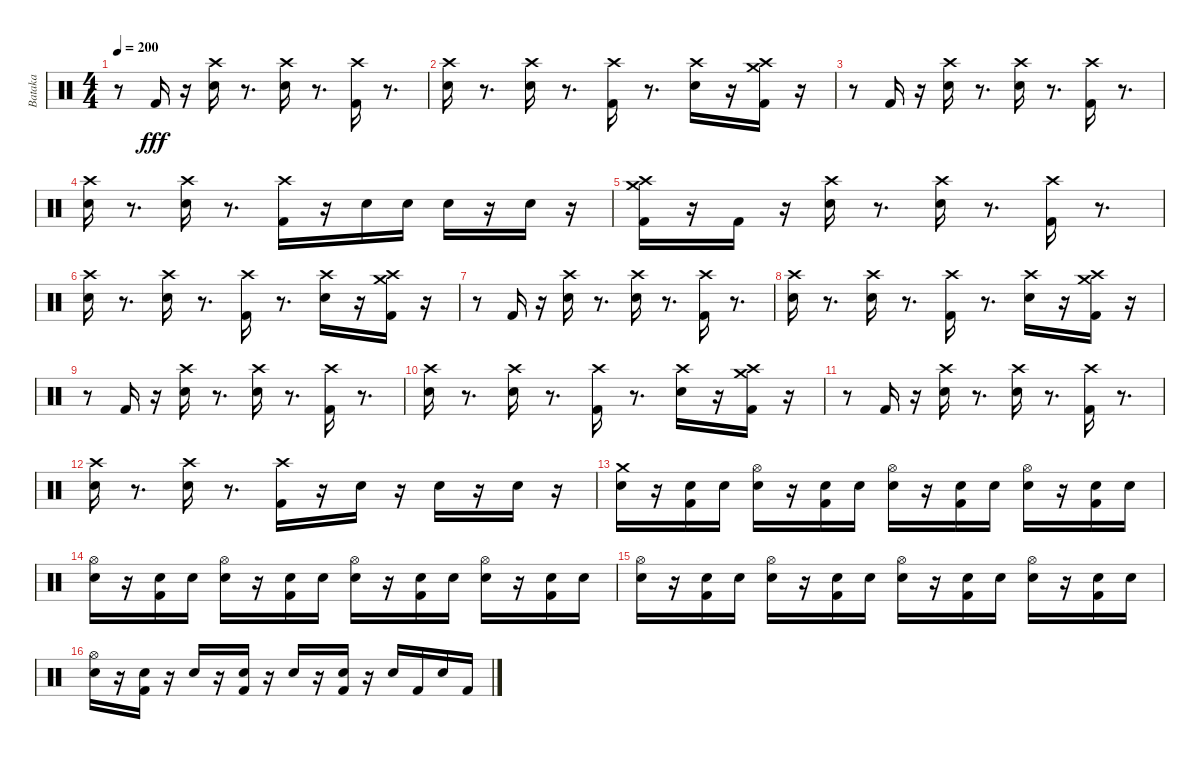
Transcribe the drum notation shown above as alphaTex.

\track ("Bataka" "Bataka") {instrument percussion}
\staff {score}
\articulation defaults
\ts (4 4)
\tempo 200
\clef neutral
\ks c
r.8{dy fff} "Kick (hit) 2".16 r.16 ("Crash high (hit)" "Electric Snare (hit)").16 r.8{d} ("Crash high (hit)" "Electric Snare (hit)").16 r.8{d} ("Crash high (hit)" "Kick (hit) 2").16 r.8{d} |
("Crash high (hit)" "Electric Snare (hit)").16 r.8{d} ("Crash high (hit)" "Electric Snare (hit)").16 r.8{d} ("Crash high (hit)" "Kick (hit) 2").16 r.8{d} ("Crash high (hit)" "Electric Snare (hit)").16 r.16 ("Crash medium (hit)" "Crash high (hit)" "Kick (hit) 2").16 r.16 |
r.8 "Kick (hit) 2".16 r.16 ("Crash high (hit)" "Electric Snare (hit)").16 r.8{d} ("Crash high (hit)" "Electric Snare (hit)").16 r.8{d} ("Crash high (hit)" "Kick (hit) 2").16 r.8{d} |
("Crash high (hit)" "Electric Snare (hit)").16 r.8{d} ("Crash high (hit)" "Electric Snare (hit)").16 r.8{d} ("Crash high (hit)" "Kick (hit) 2").16 r.16 "Electric Snare (hit)".16 "Electric Snare (hit)".16 "Electric Snare (hit)".16 r.16 "Electric Snare (hit)".16 r.16 |
("Crash medium (hit)" "Crash high (hit)" "Kick (hit) 2").16 r.16 "Kick (hit) 2".16 r.16 ("Crash high (hit)" "Electric Snare (hit)").16 r.8{d} ("Crash high (hit)" "Electric Snare (hit)").16 r.8{d} ("Crash high (hit)" "Kick (hit) 2").16 r.8{d} |
("Crash high (hit)" "Electric Snare (hit)").16 r.8{d} ("Crash high (hit)" "Electric Snare (hit)").16 r.8{d} ("Crash high (hit)" "Kick (hit) 2").16 r.8{d} ("Crash high (hit)" "Electric Snare (hit)").16 r.16 ("Crash medium (hit)" "Crash high (hit)" "Kick (hit) 2").16 r.16 |
r.8 "Kick (hit) 2".16 r.16 ("Crash high (hit)" "Electric Snare (hit)").16 r.8{d} ("Crash high (hit)" "Electric Snare (hit)").16 r.8{d} ("Crash high (hit)" "Kick (hit) 2").16 r.8{d} |
("Crash high (hit)" "Electric Snare (hit)").16 r.8{d} ("Crash high (hit)" "Electric Snare (hit)").16 r.8{d} ("Crash high (hit)" "Kick (hit) 2").16 r.8{d} ("Crash high (hit)" "Electric Snare (hit)").16 r.16 ("Crash medium (hit)" "Crash high (hit)" "Kick (hit) 2").16 r.16 |
r.8 "Kick (hit) 2".16 r.16 ("Crash high (hit)" "Electric Snare (hit)").16 r.8{d} ("Crash high (hit)" "Electric Snare (hit)").16 r.8{d} ("Crash high (hit)" "Kick (hit) 2").16 r.8{d} |
("Crash high (hit)" "Electric Snare (hit)").16 r.8{d} ("Crash high (hit)" "Electric Snare (hit)").16 r.8{d} ("Crash high (hit)" "Kick (hit) 2").16 r.8{d} ("Crash high (hit)" "Electric Snare (hit)").16 r.16 ("Crash medium (hit)" "Crash high (hit)" "Kick (hit) 2").16 r.16 |
r.8 "Kick (hit) 2".16 r.16 ("Crash high (hit)" "Electric Snare (hit)").16 r.8{d} ("Crash high (hit)" "Electric Snare (hit)").16 r.8{d} ("Crash high (hit)" "Kick (hit) 2").16 r.8{d} |
("Crash high (hit)" "Electric Snare (hit)").16 r.8{d} ("Crash high (hit)" "Electric Snare (hit)").16 r.8{d} ("Crash high (hit)" "Kick (hit) 2").16 r.16 "Electric Snare (hit)".16 r.16 "Electric Snare (hit)".16 r.16 "Electric Snare (hit)".16 r.16 |
("Electric Snare (hit)" "Crash medium (hit)").16 r.16 ("Electric Snare (hit)" "Kick (hit) 2").16 "Electric Snare (hit)".16 ("Electric Snare (hit)" "Hi-Hat (open)").16 r.16 ("Electric Snare (hit)" "Kick (hit) 2").16 "Electric Snare (hit)".16 ("Electric Snare (hit)" "Hi-Hat (open)").16 r.16 ("Electric Snare (hit)" "Kick (hit) 2").16 "Electric Snare (hit)".16 ("Electric Snare (hit)" "Hi-Hat (open)").16 r.16 ("Electric Snare (hit)" "Kick (hit) 2").16 "Electric Snare (hit)".16 |
("Electric Snare (hit)" "Hi-Hat (open)").16 r.16 ("Electric Snare (hit)" "Kick (hit) 2").16 "Electric Snare (hit)".16 ("Electric Snare (hit)" "Hi-Hat (open)").16 r.16 ("Electric Snare (hit)" "Kick (hit) 2").16 "Electric Snare (hit)".16 ("Electric Snare (hit)" "Hi-Hat (open)").16 r.16 ("Electric Snare (hit)" "Kick (hit) 2").16 "Electric Snare (hit)".16 ("Electric Snare (hit)" "Hi-Hat (open)").16 r.16 ("Electric Snare (hit)" "Kick (hit) 2").16 "Electric Snare (hit)".16 |
("Electric Snare (hit)" "Hi-Hat (open)").16 r.16 ("Electric Snare (hit)" "Kick (hit) 2").16 "Electric Snare (hit)".16 ("Electric Snare (hit)" "Hi-Hat (open)").16 r.16 ("Electric Snare (hit)" "Kick (hit) 2").16 "Electric Snare (hit)".16 ("Electric Snare (hit)" "Hi-Hat (open)").16 r.16 ("Electric Snare (hit)" "Kick (hit) 2").16 "Electric Snare (hit)".16 ("Electric Snare (hit)" "Hi-Hat (open)").16 r.16 ("Electric Snare (hit)" "Kick (hit) 2").16 "Electric Snare (hit)".16 |
("Electric Snare (hit)" "Hi-Hat (open)").16 r.16 ("Electric Snare (hit)" "Kick (hit) 2").16 r.16 "Electric Snare (hit)".16 r.16 ("Electric Snare (hit)" "Kick (hit) 2").16 r.16 "Electric Snare (hit)".16 r.16 ("Electric Snare (hit)" "Kick (hit) 2").16 r.16 "Electric Snare (hit)".16 "Kick (hit) 2".16 "Electric Snare (hit)".16 "Kick (hit) 2".16
